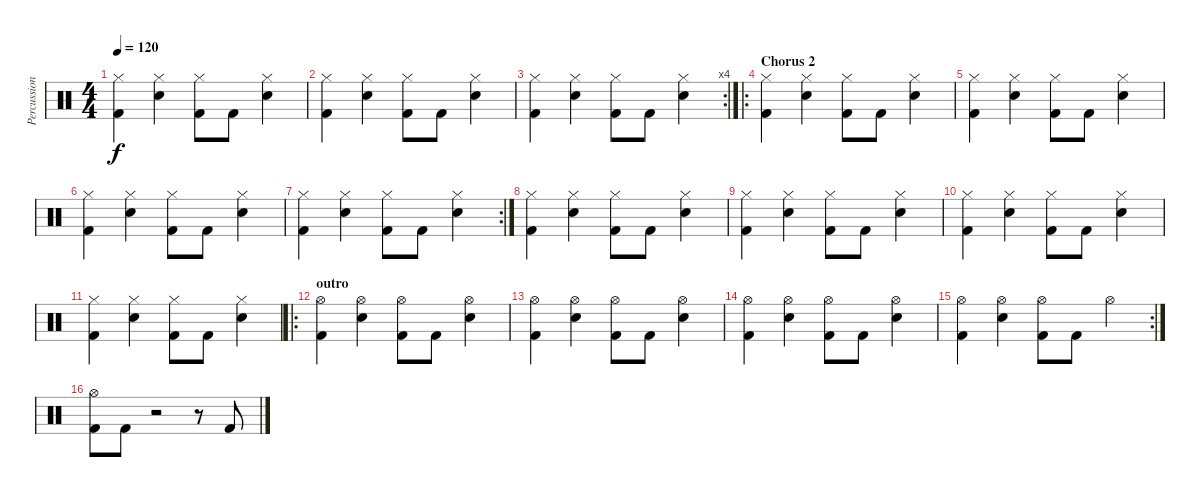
\track ("Percussions" "Percussion") {instrument percussion}
\staff {score}
\articulation defaults
\ts (4 4)
\tempo 120
\clef neutral
\ks c
("Kick (hit) 2" "Hi-Hat (closed)").4{dy f} ("Electric Snare (hit)" "Hi-Hat (closed)").4 ("Kick (hit) 2" "Hi-Hat (closed)").8 "Kick (hit) 2".8 ("Electric Snare (hit)" "Hi-Hat (closed)").4 |
("Kick (hit) 2" "Hi-Hat (closed)").4 ("Electric Snare (hit)" "Hi-Hat (closed)").4 ("Kick (hit) 2" "Hi-Hat (closed)").8 "Kick (hit) 2".8 ("Electric Snare (hit)" "Hi-Hat (closed)").4 |
\rc 4
("Kick (hit) 2" "Hi-Hat (closed)").4 ("Electric Snare (hit)" "Hi-Hat (closed)").4 ("Kick (hit) 2" "Hi-Hat (closed)").8 "Kick (hit) 2".8 ("Electric Snare (hit)" "Hi-Hat (closed)").4 |
\ro
\section ("" "Chorus 2")
("Kick (hit) 2" "Hi-Hat (closed)").4 ("Electric Snare (hit)" "Hi-Hat (closed)").4 ("Kick (hit) 2" "Hi-Hat (closed)").8 "Kick (hit) 2".8 ("Electric Snare (hit)" "Hi-Hat (closed)").4 |
("Kick (hit) 2" "Hi-Hat (closed)").4 ("Electric Snare (hit)" "Hi-Hat (closed)").4 ("Kick (hit) 2" "Hi-Hat (closed)").8 "Kick (hit) 2".8 ("Electric Snare (hit)" "Hi-Hat (closed)").4 |
("Kick (hit) 2" "Hi-Hat (closed)").4 ("Electric Snare (hit)" "Hi-Hat (closed)").4 ("Kick (hit) 2" "Hi-Hat (closed)").8 "Kick (hit) 2".8 ("Electric Snare (hit)" "Hi-Hat (closed)").4 |
\rc 2
("Kick (hit) 2" "Hi-Hat (closed)").4 ("Electric Snare (hit)" "Hi-Hat (closed)").4 ("Kick (hit) 2" "Hi-Hat (closed)").8 "Kick (hit) 2".8 ("Electric Snare (hit)" "Hi-Hat (closed)").4 |
("Kick (hit) 2" "Hi-Hat (closed)").4 ("Electric Snare (hit)" "Hi-Hat (closed)").4 ("Kick (hit) 2" "Hi-Hat (closed)").8 "Kick (hit) 2".8 ("Electric Snare (hit)" "Hi-Hat (closed)").4 |
("Kick (hit) 2" "Hi-Hat (closed)").4 ("Electric Snare (hit)" "Hi-Hat (closed)").4 ("Kick (hit) 2" "Hi-Hat (closed)").8 "Kick (hit) 2".8 ("Electric Snare (hit)" "Hi-Hat (closed)").4 |
("Kick (hit) 2" "Hi-Hat (closed)").4 ("Electric Snare (hit)" "Hi-Hat (closed)").4 ("Kick (hit) 2" "Hi-Hat (closed)").8 "Kick (hit) 2".8 ("Electric Snare (hit)" "Hi-Hat (closed)").4 |
("Kick (hit) 2" "Hi-Hat (closed)").4 ("Electric Snare (hit)" "Hi-Hat (closed)").4 ("Kick (hit) 2" "Hi-Hat (closed)").8 "Kick (hit) 2".8 ("Electric Snare (hit)" "Hi-Hat (closed)").4 |
\ro
\section ("" "outro")
("Kick (hit) 2" "Hi-Hat (open)").4 ("Electric Snare (hit)" "Hi-Hat (open)").4 ("Kick (hit) 2" "Hi-Hat (open)").8 "Kick (hit) 2".8 ("Electric Snare (hit)" "Hi-Hat (open)").4 |
("Kick (hit) 2" "Hi-Hat (open)").4 ("Electric Snare (hit)" "Hi-Hat (open)").4 ("Kick (hit) 2" "Hi-Hat (open)").8 "Kick (hit) 2".8 ("Electric Snare (hit)" "Hi-Hat (open)").4 |
("Kick (hit) 2" "Hi-Hat (open)").4 ("Electric Snare (hit)" "Hi-Hat (open)").4 ("Kick (hit) 2" "Hi-Hat (open)").8 "Kick (hit) 2".8 ("Electric Snare (hit)" "Hi-Hat (open)").4 |
\rc 2
("Kick (hit) 2" "Hi-Hat (open)").4 ("Electric Snare (hit)" "Hi-Hat (open)").4 ("Kick (hit) 2" "Hi-Hat (open)").8 "Kick (hit) 2".8 "Hi-Hat (open)".4 |
("Kick (hit) 2" "Hi-Hat (open)").8 "Kick (hit) 2".8 r.2 r.8 "Kick (hit) 2".8
